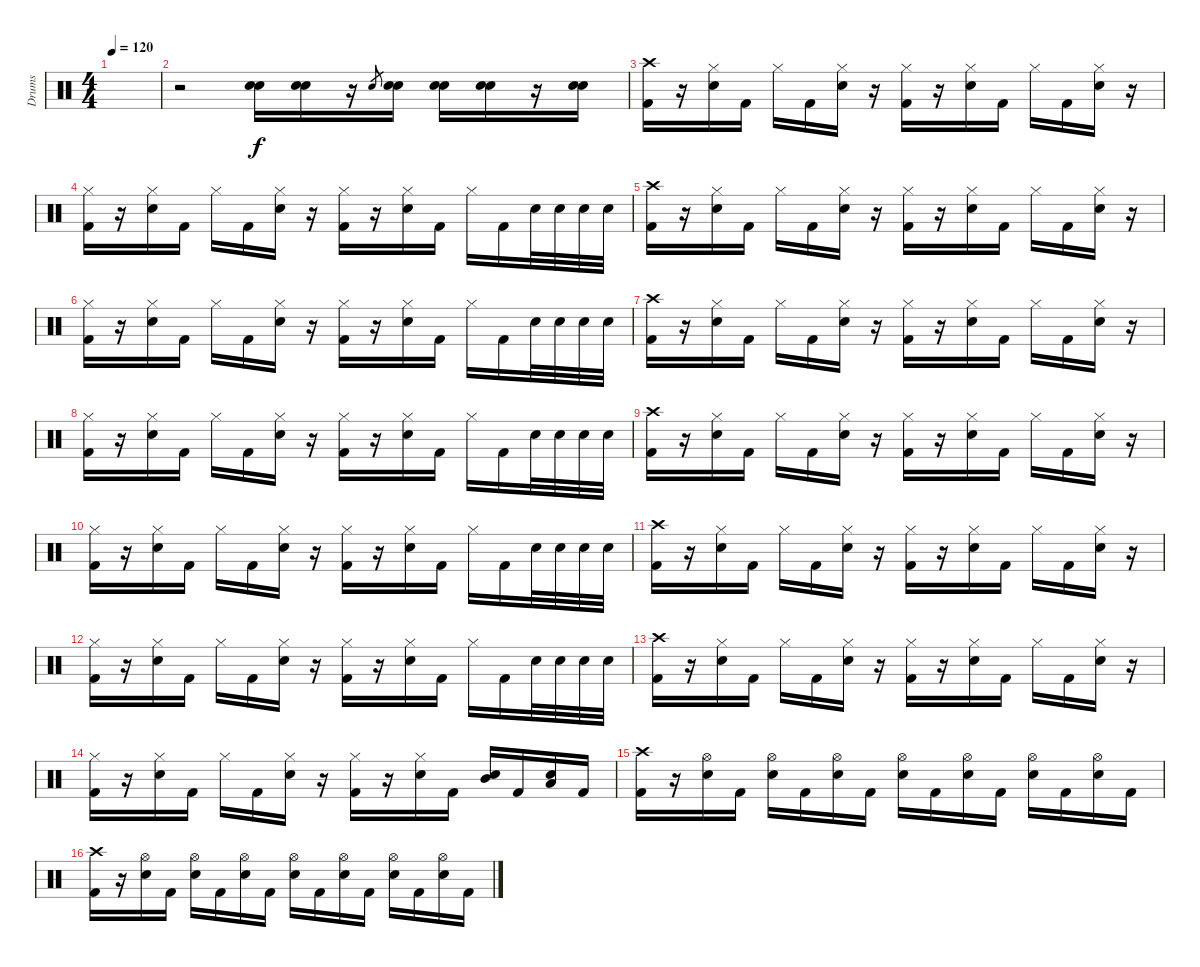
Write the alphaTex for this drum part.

\track ("Drums" "Drums") {instrument percussion}
\staff {score}
\articulation defaults
\ts (4 4)
\tempo 120
\clef neutral
\ks c
|
r.2 ("Snare (hit) 2" "Snare (hit) 2").16 ("Snare (hit) 2" "Snare (hit) 2").16 r.16 "Snare (hit) 2".8{gr} ("Snare (hit) 2" "Snare (hit) 2").16 ("Snare (hit) 2" "Snare (hit) 2").16 ("Snare (hit) 2" "Snare (hit) 2").16 r.16 ("Snare (hit) 2" "Snare (hit) 2").16 |
("Crash high (hit)" "Kick (hit) 2").16 r.16 ("Hi-Hat (closed)" "Snare (hit) 2").16 "Kick (hit) 2".16 "Hi-Hat (closed)".16 "Kick (hit) 2".16 ("Hi-Hat (closed)" "Snare (hit) 2").16 r.16 ("Hi-Hat (closed)" "Kick (hit) 2").16 r.16 ("Hi-Hat (closed)" "Snare (hit) 2").16 "Kick (hit) 2".16 "Hi-Hat (closed)".16 "Kick (hit) 2".16 ("Hi-Hat (closed)" "Snare (hit) 2").16 r.16 |
("Hi-Hat (closed)" "Kick (hit) 2").16 r.16 ("Hi-Hat (closed)" "Snare (hit) 2").16 "Kick (hit) 2".16 "Hi-Hat (closed)".16 "Kick (hit) 2".16 ("Hi-Hat (closed)" "Snare (hit) 2").16 r.16 ("Hi-Hat (closed)" "Kick (hit) 2").16 r.16 ("Hi-Hat (closed)" "Snare (hit) 2").16 "Kick (hit) 2".16 "Hi-Hat (closed)".16 "Kick (hit) 2".16 "Snare (hit) 2".32 "Snare (hit) 2".32 "Snare (hit) 2".32 "Snare (hit) 2".32 |
("Crash high (hit)" "Kick (hit) 2").16 r.16 ("Hi-Hat (closed)" "Snare (hit) 2").16 "Kick (hit) 2".16 "Hi-Hat (closed)".16 "Kick (hit) 2".16 ("Hi-Hat (closed)" "Snare (hit) 2").16 r.16 ("Hi-Hat (closed)" "Kick (hit) 2").16 r.16 ("Hi-Hat (closed)" "Snare (hit) 2").16 "Kick (hit) 2".16 "Hi-Hat (closed)".16 "Kick (hit) 2".16 ("Hi-Hat (closed)" "Snare (hit) 2").16 r.16 |
("Hi-Hat (closed)" "Kick (hit) 2").16 r.16 ("Hi-Hat (closed)" "Snare (hit) 2").16 "Kick (hit) 2".16 "Hi-Hat (closed)".16 "Kick (hit) 2".16 ("Hi-Hat (closed)" "Snare (hit) 2").16 r.16 ("Hi-Hat (closed)" "Kick (hit) 2").16 r.16 ("Hi-Hat (closed)" "Snare (hit) 2").16 "Kick (hit) 2".16 "Hi-Hat (closed)".16 "Kick (hit) 2".16 "Snare (hit) 2".32 "Snare (hit) 2".32 "Snare (hit) 2".32 "Snare (hit) 2".32 |
("Crash high (hit)" "Kick (hit) 2").16 r.16 ("Hi-Hat (closed)" "Snare (hit) 2").16 "Kick (hit) 2".16 "Hi-Hat (closed)".16 "Kick (hit) 2".16 ("Hi-Hat (closed)" "Snare (hit) 2").16 r.16 ("Hi-Hat (closed)" "Kick (hit) 2").16 r.16 ("Hi-Hat (closed)" "Snare (hit) 2").16 "Kick (hit) 2".16 "Hi-Hat (closed)".16 "Kick (hit) 2".16 ("Hi-Hat (closed)" "Snare (hit) 2").16 r.16 |
("Hi-Hat (closed)" "Kick (hit) 2").16 r.16 ("Hi-Hat (closed)" "Snare (hit) 2").16 "Kick (hit) 2".16 "Hi-Hat (closed)".16 "Kick (hit) 2".16 ("Hi-Hat (closed)" "Snare (hit) 2").16 r.16 ("Hi-Hat (closed)" "Kick (hit) 2").16 r.16 ("Hi-Hat (closed)" "Snare (hit) 2").16 "Kick (hit) 2".16 "Hi-Hat (closed)".16 "Kick (hit) 2".16 "Snare (hit) 2".32 "Snare (hit) 2".32 "Snare (hit) 2".32 "Snare (hit) 2".32 |
("Crash high (hit)" "Kick (hit) 2").16 r.16 ("Hi-Hat (closed)" "Snare (hit) 2").16 "Kick (hit) 2".16 "Hi-Hat (closed)".16 "Kick (hit) 2".16 ("Hi-Hat (closed)" "Snare (hit) 2").16 r.16 ("Hi-Hat (closed)" "Kick (hit) 2").16 r.16 ("Hi-Hat (closed)" "Snare (hit) 2").16 "Kick (hit) 2".16 "Hi-Hat (closed)".16 "Kick (hit) 2".16 ("Hi-Hat (closed)" "Snare (hit) 2").16 r.16 |
("Hi-Hat (closed)" "Kick (hit) 2").16 r.16 ("Hi-Hat (closed)" "Snare (hit) 2").16 "Kick (hit) 2".16 "Hi-Hat (closed)".16 "Kick (hit) 2".16 ("Hi-Hat (closed)" "Snare (hit) 2").16 r.16 ("Hi-Hat (closed)" "Kick (hit) 2").16 r.16 ("Hi-Hat (closed)" "Snare (hit) 2").16 "Kick (hit) 2".16 "Hi-Hat (closed)".16 "Kick (hit) 2".16 "Snare (hit) 2".32 "Snare (hit) 2".32 "Snare (hit) 2".32 "Snare (hit) 2".32 |
("Crash high (hit)" "Kick (hit) 2").16 r.16 ("Hi-Hat (closed)" "Snare (hit) 2").16 "Kick (hit) 2".16 "Hi-Hat (closed)".16 "Kick (hit) 2".16 ("Hi-Hat (closed)" "Snare (hit) 2").16 r.16 ("Hi-Hat (closed)" "Kick (hit) 2").16 r.16 ("Hi-Hat (closed)" "Snare (hit) 2").16 "Kick (hit) 2".16 "Hi-Hat (closed)".16 "Kick (hit) 2".16 ("Hi-Hat (closed)" "Snare (hit) 2").16 r.16 |
("Hi-Hat (closed)" "Kick (hit) 2").16 r.16 ("Hi-Hat (closed)" "Snare (hit) 2").16 "Kick (hit) 2".16 "Hi-Hat (closed)".16 "Kick (hit) 2".16 ("Hi-Hat (closed)" "Snare (hit) 2").16 r.16 ("Hi-Hat (closed)" "Kick (hit) 2").16 r.16 ("Hi-Hat (closed)" "Snare (hit) 2").16 "Kick (hit) 2".16 "Hi-Hat (closed)".16 "Kick (hit) 2".16 "Snare (hit) 2".32 "Snare (hit) 2".32 "Snare (hit) 2".32 "Snare (hit) 2".32 |
("Crash high (hit)" "Kick (hit) 2").16 r.16 ("Hi-Hat (closed)" "Snare (hit) 2").16 "Kick (hit) 2".16 "Hi-Hat (closed)".16 "Kick (hit) 2".16 ("Hi-Hat (closed)" "Snare (hit) 2").16 r.16 ("Hi-Hat (closed)" "Kick (hit) 2").16 r.16 ("Hi-Hat (closed)" "Snare (hit) 2").16 "Kick (hit) 2".16 "Hi-Hat (closed)".16 "Kick (hit) 2".16 ("Hi-Hat (closed)" "Snare (hit) 2").16 r.16 |
("Hi-Hat (closed)" "Kick (hit) 2").16 r.16 ("Hi-Hat (closed)" "Snare (hit) 2").16 "Kick (hit) 2".16 "Hi-Hat (closed)".16 "Kick (hit) 2".16 ("Hi-Hat (closed)" "Snare (hit) 2").16 r.16 ("Hi-Hat (closed)" "Kick (hit) 2").16 r.16 ("Hi-Hat (closed)" "Snare (hit) 2").16 "Kick (hit) 2".16 ("Mid Tom (hit)" "Snare (hit) 2").16 "Kick (hit) 2".16 ("Low Tom (hit)" "Snare (hit) 2").16 "Kick (hit) 2".16 |
("Crash high (hit)" "Kick (hit) 2").16 r.16 ("Hi-Hat (open)" "Snare (hit) 2").16 "Kick (hit) 2".16 ("Hi-Hat (open)" "Snare (hit) 2").16 "Kick (hit) 2".16 ("Hi-Hat (open)" "Snare (hit) 2").16 "Kick (hit) 2".16 ("Hi-Hat (open)" "Snare (hit) 2").16 "Kick (hit) 2".16 ("Hi-Hat (open)" "Snare (hit) 2").16 "Kick (hit) 2".16 ("Hi-Hat (open)" "Snare (hit) 2").16 "Kick (hit) 2".16 ("Hi-Hat (open)" "Snare (hit) 2").16 "Kick (hit) 2".16 |
("Crash high (hit)" "Kick (hit) 2").16 r.16 ("Hi-Hat (open)" "Snare (hit) 2").16 "Kick (hit) 2".16 ("Hi-Hat (open)" "Snare (hit) 2").16 "Kick (hit) 2".16 ("Hi-Hat (open)" "Snare (hit) 2").16 "Kick (hit) 2".16 ("Hi-Hat (open)" "Snare (hit) 2").16 "Kick (hit) 2".16 ("Hi-Hat (open)" "Snare (hit) 2").16 "Kick (hit) 2".16 ("Hi-Hat (open)" "Snare (hit) 2").16 "Kick (hit) 2".16 ("Hi-Hat (open)" "Snare (hit) 2").16 "Kick (hit) 2".16
